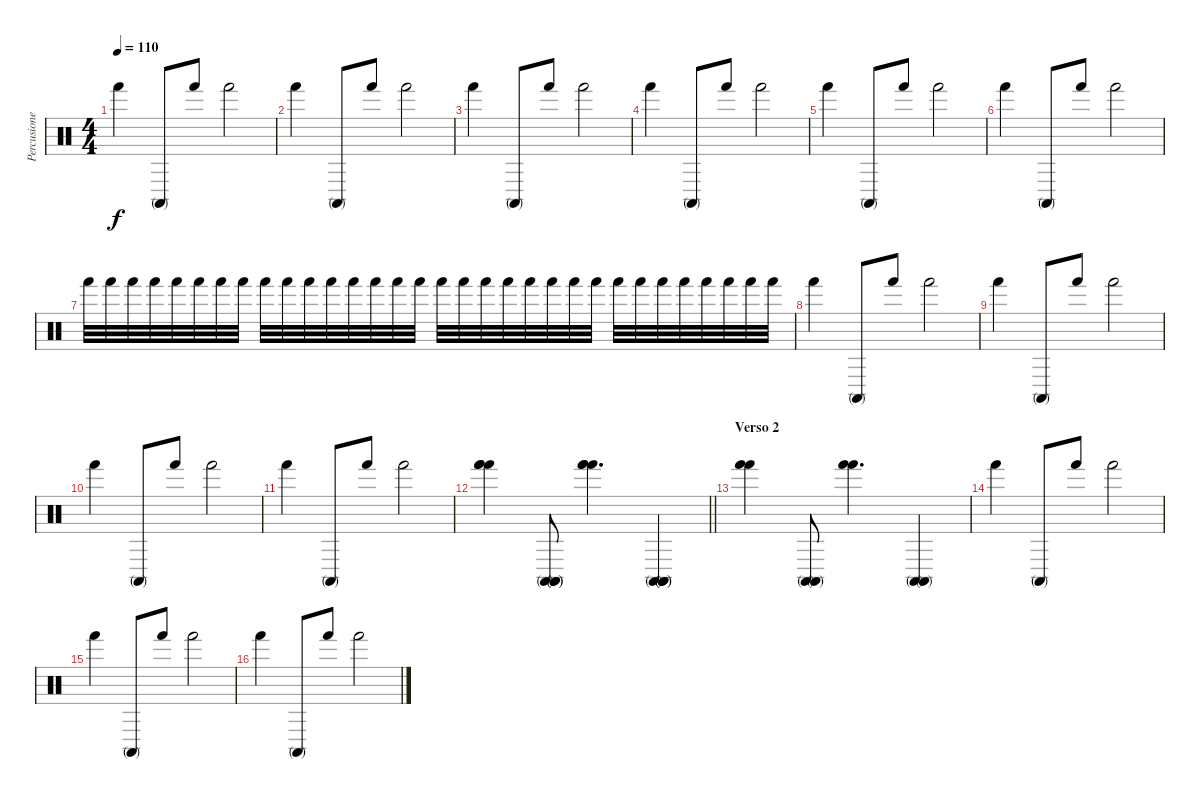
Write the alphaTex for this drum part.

\track ("Percusiones" "Percusione") {instrument percussion}
\staff {score}
\articulation defaults
\ts (4 4)
\tempo 110
\clef neutral
\ks c "Hand (hit)".4{dy f} "Conga high (mute)".8 "Hand (hit)".8 "Hand (hit)".2
|
"Hand (hit)".4 "Conga high (mute)".8 "Hand (hit)".8 "Hand (hit)".2 |
"Hand (hit)".4 "Conga high (mute)".8 "Hand (hit)".8 "Hand (hit)".2 |
"Hand (hit)".4 "Conga high (mute)".8 "Hand (hit)".8 "Hand (hit)".2 |
"Hand (hit)".4 "Conga high (mute)".8 "Hand (hit)".8 "Hand (hit)".2 |
"Hand (hit)".4 "Conga high (mute)".8 "Hand (hit)".8 "Hand (hit)".2 |
"Hand (hit)".32 "Hand (hit)".32 "Hand (hit)".32 "Hand (hit)".32 "Hand (hit)".32 "Hand (hit)".32 "Hand (hit)".32 "Hand (hit)".32 "Hand (hit)".32 "Hand (hit)".32 "Hand (hit)".32 "Hand (hit)".32 "Hand (hit)".32 "Hand (hit)".32 "Hand (hit)".32 "Hand (hit)".32 "Hand (hit)".32 "Hand (hit)".32 "Hand (hit)".32 "Hand (hit)".32 "Hand (hit)".32 "Hand (hit)".32 "Hand (hit)".32 "Hand (hit)".32 "Hand (hit)".32 "Hand (hit)".32 "Hand (hit)".32 "Hand (hit)".32 "Hand (hit)".32 "Hand (hit)".32 "Hand (hit)".32 "Hand (hit)".32 |
"Hand (hit)".4 "Conga high (mute)".8 "Hand (hit)".8 "Hand (hit)".2 |
"Hand (hit)".4 "Conga high (mute)".8 "Hand (hit)".8 "Hand (hit)".2 |
"Hand (hit)".4 "Conga high (mute)".8 "Hand (hit)".8 "Hand (hit)".2 |
"Hand (hit)".4 "Conga high (mute)".8 "Hand (hit)".8 "Hand (hit)".2 |
\barLineRight lightlight
("Hand (hit)" "Hand (hit)" "Hand (hit)").4 ("Conga high (mute)" "Conga high (mute)" "Conga high (mute)").8 ("Hand (hit)" "Hand (hit)" "Hand (hit)").4{d} ("Conga high (mute)" "Conga high (mute)" "Conga high (mute)").4 |
\section ("" "Verso 2")
("Hand (hit)" "Hand (hit)").4 ("Conga high (mute)" "Conga high (mute)").8 ("Hand (hit)" "Hand (hit)").4{d} ("Conga high (mute)" "Conga high (mute)").4 |
"Hand (hit)".4 "Conga high (mute)".8 "Hand (hit)".8 "Hand (hit)".2 |
"Hand (hit)".4 "Conga high (mute)".8 "Hand (hit)".8 "Hand (hit)".2 |
"Hand (hit)".4 "Conga high (mute)".8 "Hand (hit)".8 "Hand (hit)".2
